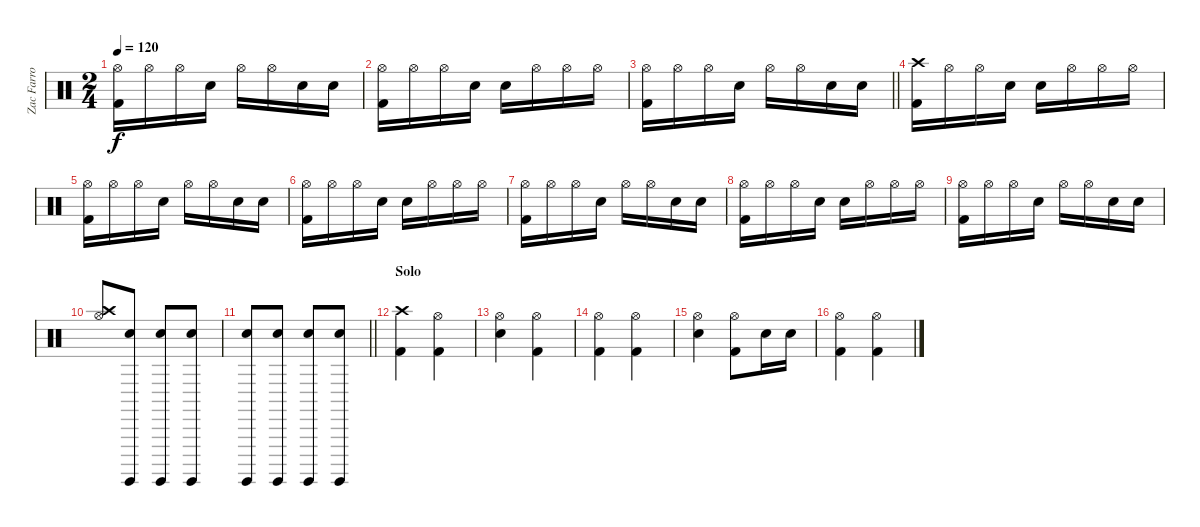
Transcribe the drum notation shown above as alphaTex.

\track ("Zac Farro" "Zac Farro") {instrument percussion}
\staff {score}
\articulation defaults
\ts (2 4)
\tempo 120
\clef neutral
\ks c
("Hi-Hat (open)" "Kick (hit) 2").16{dy f} "Hi-Hat (open)".16 "Hi-Hat (open)".16 "Electric Snare (hit)".16 "Hi-Hat (open)".16 "Hi-Hat (open)".16 "Electric Snare (hit)".16 "Electric Snare (hit)".16 |
("Hi-Hat (open)" "Kick (hit) 2").16 "Hi-Hat (open)".16 "Hi-Hat (open)".16 "Electric Snare (hit)".16 "Electric Snare (hit)".16 "Hi-Hat (open)".16 "Hi-Hat (open)".16 "Hi-Hat (open)".16 |
\barLineRight lightlight
("Hi-Hat (open)" "Kick (hit) 2").16 "Hi-Hat (open)".16 "Hi-Hat (open)".16 "Electric Snare (hit)".16 "Hi-Hat (open)".16 "Hi-Hat (open)".16 "Electric Snare (hit)".16 "Electric Snare (hit)".16 |
("Kick (hit) 2" "Crash high (hit)").16 "Hi-Hat (open)".16 "Hi-Hat (open)".16 "Electric Snare (hit)".16 "Electric Snare (hit)".16 "Hi-Hat (open)".16 "Hi-Hat (open)".16 "Hi-Hat (open)".16 |
("Hi-Hat (open)" "Kick (hit) 2").16 "Hi-Hat (open)".16 "Hi-Hat (open)".16 "Electric Snare (hit)".16 "Hi-Hat (open)".16 "Hi-Hat (open)".16 "Electric Snare (hit)".16 "Electric Snare (hit)".16 |
("Hi-Hat (open)" "Kick (hit) 2").16 "Hi-Hat (open)".16 "Hi-Hat (open)".16 "Electric Snare (hit)".16 "Electric Snare (hit)".16 "Hi-Hat (open)".16 "Hi-Hat (open)".16 "Hi-Hat (open)".16 |
("Hi-Hat (open)" "Kick (hit) 2").16 "Hi-Hat (open)".16 "Hi-Hat (open)".16 "Electric Snare (hit)".16 "Hi-Hat (open)".16 "Hi-Hat (open)".16 "Electric Snare (hit)".16 "Electric Snare (hit)".16 |
("Hi-Hat (open)" "Kick (hit) 2").16 "Hi-Hat (open)".16 "Hi-Hat (open)".16 "Electric Snare (hit)".16 "Electric Snare (hit)".16 "Hi-Hat (open)".16 "Hi-Hat (open)".16 "Hi-Hat (open)".16 |
("Hi-Hat (open)" "Kick (hit) 2").16 "Hi-Hat (open)".16 "Hi-Hat (open)".16 "Electric Snare (hit)".16 "Hi-Hat (open)".16 "Hi-Hat (open)".16 "Electric Snare (hit)".16 "Electric Snare (hit)".16 |
("Hi-Hat (open)" "Crash high (hit)").8 ("Electric Snare (hit)" "Surdo (hit)").8 ("Electric Snare (hit)" "Surdo (hit)").8 ("Electric Snare (hit)" "Surdo (hit)").8 |
\barLineRight lightlight
("Electric Snare (hit)" "Surdo (hit)").8 ("Electric Snare (hit)" "Surdo (hit)").8 ("Electric Snare (hit)" "Surdo (hit)").8 ("Electric Snare (hit)" "Surdo (hit)").8 |
\section ("" "Solo")
("Crash high (hit)" "Kick (hit) 2").4 ("Hi-Hat (open)" "Kick (hit) 2").4 |
("Electric Snare (hit)" "Hi-Hat (open)").4 ("Hi-Hat (open)" "Kick (hit) 2").4 |
("Hi-Hat (open)" "Kick (hit) 2").4 ("Hi-Hat (open)" "Kick (hit) 2").4 |
("Hi-Hat (open)" "Electric Snare (hit)").4 ("Kick (hit) 2" "Hi-Hat (open)").8 "Electric Snare (hit)".16 "Electric Snare (hit)".16 |
("Kick (hit) 2" "Hi-Hat (open)").4 ("Kick (hit) 2" "Hi-Hat (open)").4
